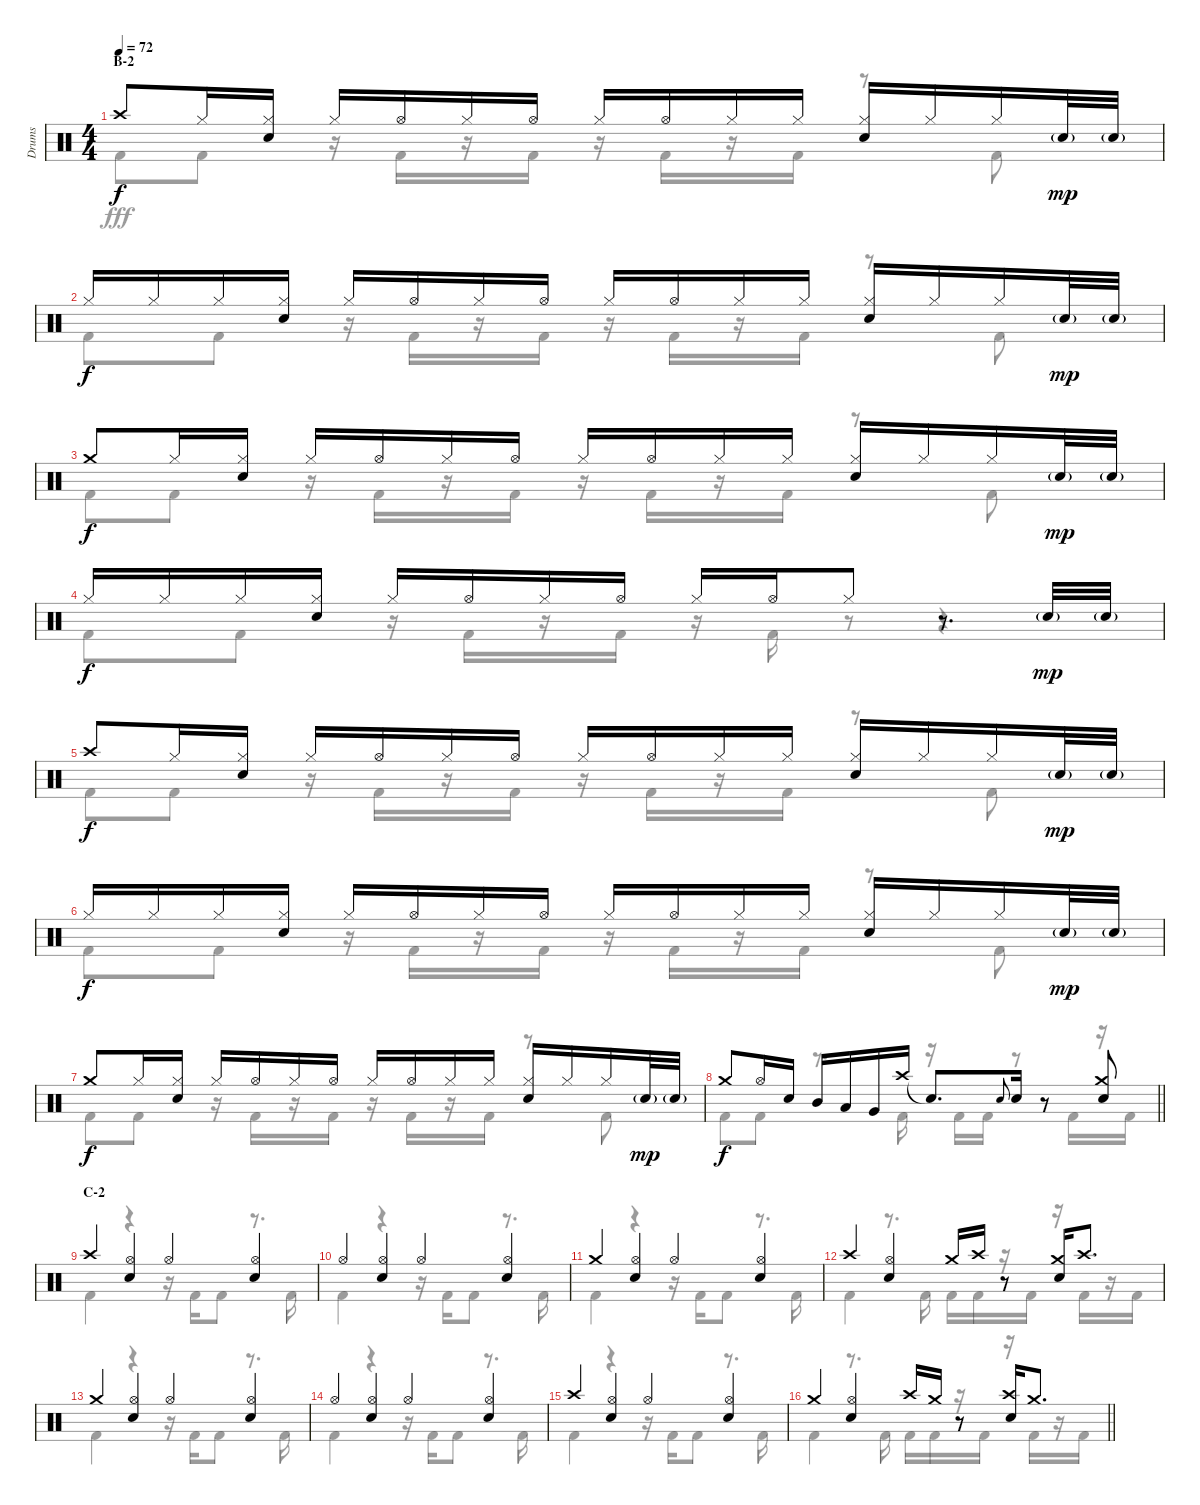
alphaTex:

\track ("Drums" "Drums") {instrument percussion}
\staff {score}
\articulation defaults
\voice
\ts (4 4)
\section ("" "B-2")
\tempo 72
\clef neutral
\ks aminor "Crash high (hit)".8{dy f} "Hi-Hat (closed)".16
("Hi-Hat (closed)" "Snare (hit) 2").16 "Hi-Hat (closed)".16 "Hi-Hat (open)".16 "Hi-Hat (closed)".16 "Hi-Hat (open)".16 "Hi-Hat (closed)".16 "Hi-Hat (open)".16 "Hi-Hat (closed)".16 "Hi-Hat (closed)".16 ("Hi-Hat (closed)" "Snare (hit) 2").16 "Hi-Hat (closed)".16 "Hi-Hat (closed)".16 "Snare (hit) 2"{g}.32{dy mp} "Snare (hit) 2"{g}.32 |
"Hi-Hat (closed)".16{dy f} "Hi-Hat (closed)".16 "Hi-Hat (closed)".16 ("Hi-Hat (closed)" "Snare (hit) 2").16 "Hi-Hat (closed)".16 "Hi-Hat (open)".16 "Hi-Hat (closed)".16 "Hi-Hat (open)".16 "Hi-Hat (closed)".16 "Hi-Hat (open)".16 "Hi-Hat (closed)".16 "Hi-Hat (closed)".16 ("Hi-Hat (closed)" "Snare (hit) 2").16 "Hi-Hat (closed)".16 "Hi-Hat (closed)".16 "Snare (hit) 2"{g}.32{dy mp} "Snare (hit) 2"{g}.32 |
"Crash medium (hit)".8{dy f} "Hi-Hat (closed)".16 ("Hi-Hat (closed)" "Snare (hit) 2").16 "Hi-Hat (closed)".16 "Hi-Hat (open)".16 "Hi-Hat (closed)".16 "Hi-Hat (open)".16 "Hi-Hat (closed)".16 "Hi-Hat (open)".16 "Hi-Hat (closed)".16 "Hi-Hat (closed)".16 ("Hi-Hat (closed)" "Snare (hit) 2").16 "Hi-Hat (closed)".16 "Hi-Hat (closed)".16 "Snare (hit) 2"{g}.32{dy mp} "Snare (hit) 2"{g}.32 |
"Hi-Hat (closed)".16{dy f} "Hi-Hat (closed)".16 "Hi-Hat (closed)".16 ("Hi-Hat (closed)" "Snare (hit) 2").16 "Hi-Hat (closed)".16 "Hi-Hat (open)".16 "Hi-Hat (closed)".16 "Hi-Hat (open)".16 "Hi-Hat (closed)".16 "Hi-Hat (open)".16 "Hi-Hat (closed)".8 r.8{d} "Snare (hit) 2"{g}.32{dy mp} "Snare (hit) 2"{g}.32 |
"Crash high (hit)".8{dy f} "Hi-Hat (closed)".16 ("Hi-Hat (closed)" "Snare (hit) 2").16 "Hi-Hat (closed)".16 "Hi-Hat (open)".16 "Hi-Hat (closed)".16 "Hi-Hat (open)".16 "Hi-Hat (closed)".16 "Hi-Hat (open)".16 "Hi-Hat (closed)".16 "Hi-Hat (closed)".16 ("Hi-Hat (closed)" "Snare (hit) 2").16 "Hi-Hat (closed)".16 "Hi-Hat (closed)".16 "Snare (hit) 2"{g}.32{dy mp} "Snare (hit) 2"{g}.32 |
"Hi-Hat (closed)".16{dy f} "Hi-Hat (closed)".16 "Hi-Hat (closed)".16 ("Hi-Hat (closed)" "Snare (hit) 2").16 "Hi-Hat (closed)".16 "Hi-Hat (open)".16 "Hi-Hat (closed)".16 "Hi-Hat (open)".16 "Hi-Hat (closed)".16 "Hi-Hat (open)".16 "Hi-Hat (closed)".16 "Hi-Hat (closed)".16 ("Hi-Hat (closed)" "Snare (hit) 2").16 "Hi-Hat (closed)".16 "Hi-Hat (closed)".16 "Snare (hit) 2"{g}.32{dy mp} "Snare (hit) 2"{g}.32 |
"Crash medium (hit)".8{dy f} "Hi-Hat (closed)".16 ("Hi-Hat (closed)" "Snare (hit) 2").16 "Hi-Hat (closed)".16 "Hi-Hat (open)".16 "Hi-Hat (closed)".16 "Hi-Hat (open)".16 "Hi-Hat (closed)".16 "Hi-Hat (open)".16 "Hi-Hat (closed)".16 "Hi-Hat (closed)".16 ("Hi-Hat (closed)" "Snare (hit) 2").16 "Hi-Hat (closed)".16 "Hi-Hat (closed)".16 "Snare (hit) 2"{g}.32{dy mp} "Snare (hit) 2"{g}.32 |
\barLineRight lightlight "Crash medium (hit)".8{dy f} "Hi-Hat (open)".16 "Snare (hit) 2".16 "Mid Tom (hit)".16 "Low Tom (hit)".16 "Very Low Tom (hit)".16 "Crash high (hit)".16 "Snare (hit)"{t}.8{d} "Snare (hit) 2".8{gr onbeat} "Snare (hit) 2".16
r.8 ("Crash medium (hit)" "Snare (hit) 2").8 |
\section ("" "C-2")
"Crash high (hit)".4 ("Hi-Hat (open)" "Snare (hit) 2").4 "Hi-Hat (open)".4 ("Hi-Hat (open)" "Snare (hit) 2").4 |
"Hi-Hat (open)".4 ("Hi-Hat (open)" "Snare (hit) 2").4 "Hi-Hat (open)".4 ("Hi-Hat (open)" "Snare (hit) 2").4 |
"Crash medium (hit)".4 ("Hi-Hat (open)" "Snare (hit) 2").4 "Hi-Hat (open)".4 ("Hi-Hat (open)" "Snare (hit) 2").4 |
"Crash high (hit)".4 ("Hi-Hat (open)" "Snare (hit) 2").4 "Crash medium (hit)".16 "Crash high (hit)".16 r.8 ("Crash medium (hit)" "Snare (hit) 2").16 "Crash high (hit)".8{d} |
"Crash medium (hit)".4 ("Hi-Hat (open)" "Snare (hit) 2").4 "Hi-Hat (open)".4 ("Hi-Hat (open)" "Snare (hit) 2").4 |
"Hi-Hat (open)".4 ("Hi-Hat (open)" "Snare (hit) 2").4 "Hi-Hat (open)".4 ("Hi-Hat (open)" "Snare (hit) 2").4 |
"Crash high (hit)".4 ("Hi-Hat (open)" "Snare (hit) 2").4 "Hi-Hat (open)".4 ("Hi-Hat (open)" "Snare (hit) 2").4 |
\barLineRight lightlight "Crash medium (hit)".4
("Hi-Hat (open)" "Snare (hit) 2").4 "Crash high (hit)".16 "Crash medium (hit)".16 r.8 ("Crash high (hit)" "Snare (hit) 2").16 "Crash medium (hit)".8{d}
\voice
\clef neutral
\ottava regular
\simile none
\ks aminor "Kick (hit) 2".8{dy fff} "Kick (hit) 2".8
r.16 "Kick (hit) 2".16 r.16 "Kick (hit) 2".16 r.16 "Kick (hit) 2".16 r.16 "Kick (hit) 2".16 r.8 "Kick (hit) 2".8 |
"Kick (hit) 2".8 "Kick (hit) 2".8 r.16 "Kick (hit) 2".16 r.16 "Kick (hit) 2".16 r.16 "Kick (hit) 2".16 r.16 "Kick (hit) 2".16 r.8 "Kick (hit) 2".8 |
"Kick (hit) 2".8 "Kick (hit) 2".8 r.16 "Kick (hit) 2".16 r.16 "Kick (hit) 2".16 r.16 "Kick (hit) 2".16 r.16 "Kick (hit) 2".16 r.8 "Kick (hit) 2".8 |
"Kick (hit) 2".8 "Kick (hit) 2".8 r.16 "Kick (hit) 2".16 r.16 "Kick (hit) 2".16 r.16 "Kick (hit) 2".16 r.8 r.4 |
"Kick (hit) 2".8 "Kick (hit) 2".8 r.16 "Kick (hit) 2".16 r.16 "Kick (hit) 2".16 r.16 "Kick (hit) 2".16 r.16 "Kick (hit) 2".16 r.8 "Kick (hit) 2".8 |
"Kick (hit) 2".8 "Kick (hit) 2".8 r.16 "Kick (hit) 2".16 r.16 "Kick (hit) 2".16 r.16 "Kick (hit) 2".16 r.16 "Kick (hit) 2".16 r.8 "Kick (hit) 2".8 |
"Kick (hit) 2".8 "Kick (hit) 2".8 r.16 "Kick (hit) 2".16 r.16 "Kick (hit) 2".16 r.16 "Kick (hit) 2".16 r.16 "Kick (hit) 2".16 r.8 "Kick (hit) 2".8 |
\barLineRight lightlight "Kick (hit) 2".8 "Kick (hit) 2".8
r.8{d} "Kick (hit) 2".16 r.16 "Kick (hit) 2".16 "Kick (hit) 2".16 r.8 "Kick (hit) 2".16 r.16 "Kick (hit) 2".16 |
"Kick (hit) 2".4 r.4 r.16 "Kick (hit) 2".16 "Kick (hit) 2".8 r.8{d} "Kick (hit) 2".16 |
"Kick (hit) 2".4 r.4 r.16 "Kick (hit) 2".16 "Kick (hit) 2".8 r.8{d} "Kick (hit) 2".16 |
"Kick (hit) 2".4 r.4 r.16 "Kick (hit) 2".16 "Kick (hit) 2".8 r.8{d} "Kick (hit) 2".16 |
"Kick (hit) 2".4 r.8{d} "Kick (hit) 2".16 "Kick (hit) 2".16 "Kick (hit) 2".16 r.16 "Kick (hit) 2".16 r.16 "Kick (hit) 2".16 r.16 "Kick (hit) 2".16 |
"Kick (hit) 2".4 r.4 r.16 "Kick (hit) 2".16 "Kick (hit) 2".8 r.8{d} "Kick (hit) 2".16 |
"Kick (hit) 2".4 r.4 r.16 "Kick (hit) 2".16 "Kick (hit) 2".8 r.8{d} "Kick (hit) 2".16 |
"Kick (hit) 2".4 r.4 r.16 "Kick (hit) 2".16 "Kick (hit) 2".8 r.8{d} "Kick (hit) 2".16 |
\barLineRight lightlight "Kick (hit) 2".4
r.8{d} "Kick (hit) 2".16 "Kick (hit) 2".16 "Kick (hit) 2".16 r.16 "Kick (hit) 2".16 r.16 "Kick (hit) 2".16 r.16 "Kick (hit) 2".16
